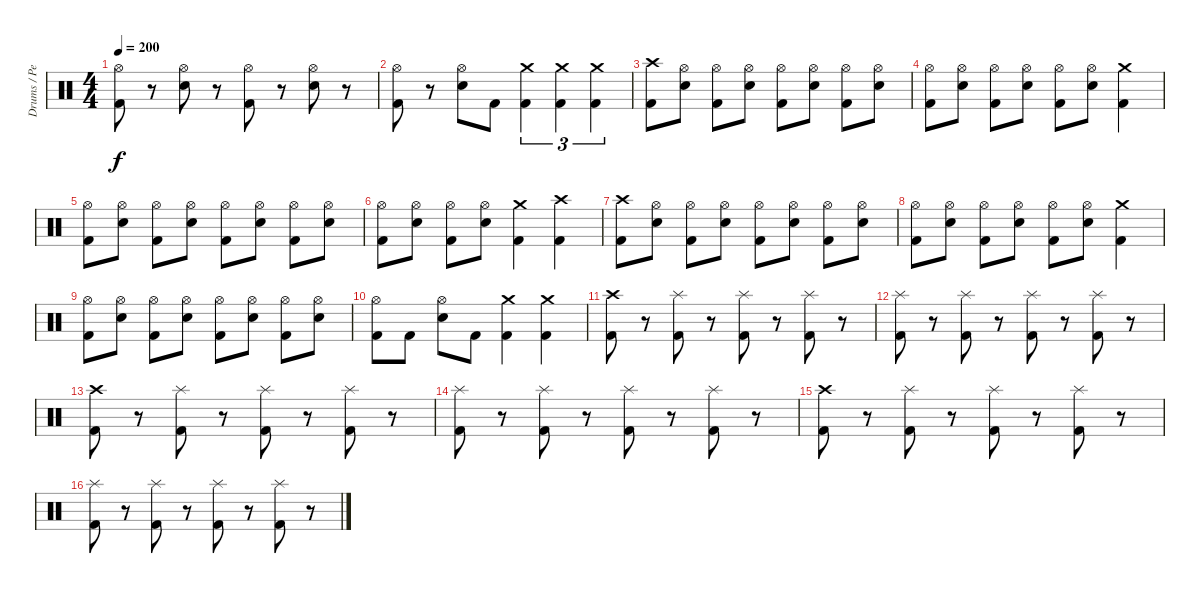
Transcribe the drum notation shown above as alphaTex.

\track ("Drums / Percussion" "Drums / Pe") {instrument percussion}
\staff {score}
\articulation defaults
\ts (4 4)
\tempo 200
\clef neutral
\ks c
("Hi-Hat (open)" "Kick (hit) 2").8{dy f} r.8 ("Hi-Hat (open)" "Electric Snare (hit)").8 r.8 ("Hi-Hat (open)" "Kick (hit) 2").8 r.8 ("Hi-Hat (open)" "Electric Snare (hit)").8 r.8 |
("Hi-Hat (open)" "Kick (hit) 2").8 r.8 ("Hi-Hat (open)" "Electric Snare (hit)").8 "Kick (hit) 2".8 ("Crash medium (hit)" "Kick (hit) 2").4{tu (3 2)} ("Crash medium (hit)" "Kick (hit) 2").4{tu (3 2)} ("Crash medium (hit)" "Kick (hit) 2").4{tu (3 2)} |
("Crash high (hit)" "Kick (hit) 2").8 ("Hi-Hat (open)" "Electric Snare (hit)").8 ("Hi-Hat (open)" "Kick (hit) 2").8 ("Hi-Hat (open)" "Electric Snare (hit)").8 ("Hi-Hat (open)" "Kick (hit) 2").8 ("Hi-Hat (open)" "Electric Snare (hit)").8 ("Hi-Hat (open)" "Kick (hit) 2").8 ("Hi-Hat (open)" "Electric Snare (hit)").8 |
("Hi-Hat (open)" "Kick (hit) 2").8 ("Hi-Hat (open)" "Electric Snare (hit)").8 ("Hi-Hat (open)" "Kick (hit) 2").8 ("Hi-Hat (open)" "Electric Snare (hit)").8 ("Hi-Hat (open)" "Kick (hit) 2").8 ("Hi-Hat (open)" "Electric Snare (hit)").8 ("Crash medium (hit)" "Kick (hit) 2").4 |
("Hi-Hat (open)" "Kick (hit) 2").8 ("Hi-Hat (open)" "Electric Snare (hit)").8 ("Hi-Hat (open)" "Kick (hit) 2").8 ("Hi-Hat (open)" "Electric Snare (hit)").8 ("Hi-Hat (open)" "Kick (hit) 2").8 ("Hi-Hat (open)" "Electric Snare (hit)").8 ("Hi-Hat (open)" "Kick (hit) 2").8 ("Hi-Hat (open)" "Electric Snare (hit)").8 |
("Hi-Hat (open)" "Kick (hit) 2").8 ("Hi-Hat (open)" "Electric Snare (hit)").8 ("Hi-Hat (open)" "Kick (hit) 2").8 ("Hi-Hat (open)" "Electric Snare (hit)").8 ("Crash medium (hit)" "Kick (hit) 2").4 ("Crash high (hit)" "Kick (hit) 2").4 |
("Crash high (hit)" "Kick (hit) 2").8 ("Hi-Hat (open)" "Electric Snare (hit)").8 ("Hi-Hat (open)" "Kick (hit) 2").8 ("Hi-Hat (open)" "Electric Snare (hit)").8 ("Hi-Hat (open)" "Kick (hit) 2").8 ("Hi-Hat (open)" "Electric Snare (hit)").8 ("Hi-Hat (open)" "Kick (hit) 2").8 ("Hi-Hat (open)" "Electric Snare (hit)").8 |
("Hi-Hat (open)" "Kick (hit) 2").8 ("Hi-Hat (open)" "Electric Snare (hit)").8 ("Hi-Hat (open)" "Kick (hit) 2").8 ("Hi-Hat (open)" "Electric Snare (hit)").8 ("Hi-Hat (open)" "Kick (hit) 2").8 ("Hi-Hat (open)" "Electric Snare (hit)").8 ("Crash medium (hit)" "Kick (hit) 2").4 |
("Hi-Hat (open)" "Kick (hit) 2").8 ("Hi-Hat (open)" "Electric Snare (hit)").8 ("Hi-Hat (open)" "Kick (hit) 2").8 ("Hi-Hat (open)" "Electric Snare (hit)").8 ("Hi-Hat (open)" "Kick (hit) 2").8 ("Hi-Hat (open)" "Electric Snare (hit)").8 ("Hi-Hat (open)" "Kick (hit) 2").8 ("Hi-Hat (open)" "Electric Snare (hit)").8 |
("Hi-Hat (open)" "Kick (hit) 2").8 "Kick (hit) 2".8 ("Hi-Hat (open)" "Electric Snare (hit)").8 "Kick (hit) 2".8 ("Crash medium (hit)" "Kick (hit) 2").4 ("Crash medium (hit)" "Kick (hit) 2").4 |
("Crash high (hit)" "Kick (hit) 2").8 r.8 ("Splash (hit)" "Kick (hit) 2").8 r.8 ("Splash (hit)" "Kick (hit) 2").8 r.8 ("Splash (hit)" "Kick (hit) 2").8 r.8 |
("Splash (hit)" "Kick (hit) 2").8 r.8 ("Splash (hit)" "Kick (hit) 2").8 r.8 ("Splash (hit)" "Kick (hit) 2").8 r.8 ("Splash (hit)" "Kick (hit) 2").8 r.8 |
("Crash high (hit)" "Kick (hit) 2").8 r.8 ("Splash (hit)" "Kick (hit) 2").8 r.8 ("Splash (hit)" "Kick (hit) 2").8 r.8 ("Splash (hit)" "Kick (hit) 2").8 r.8 |
("Splash (hit)" "Kick (hit) 2").8 r.8 ("Splash (hit)" "Kick (hit) 2").8 r.8 ("Splash (hit)" "Kick (hit) 2").8 r.8 ("Splash (hit)" "Kick (hit) 2").8 r.8 |
("Crash high (hit)" "Kick (hit) 2").8 r.8 ("Splash (hit)" "Kick (hit) 2").8 r.8 ("Splash (hit)" "Kick (hit) 2").8 r.8 ("Splash (hit)" "Kick (hit) 2").8 r.8 |
("Splash (hit)" "Kick (hit) 2").8 r.8 ("Splash (hit)" "Kick (hit) 2").8 r.8 ("Splash (hit)" "Kick (hit) 2").8 r.8 ("Splash (hit)" "Kick (hit) 2").8 r.8
